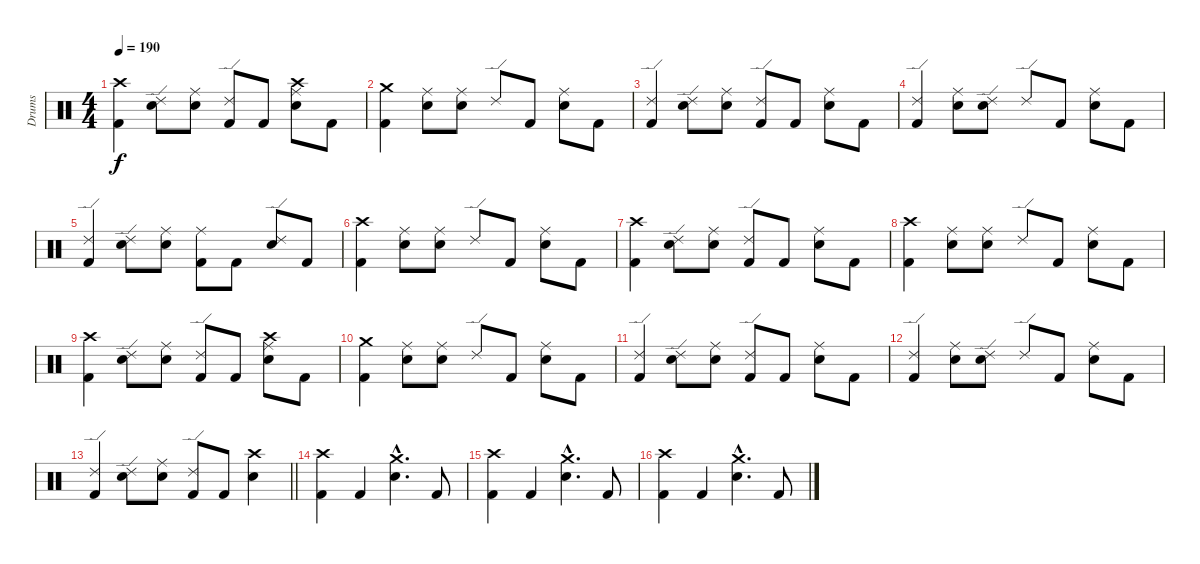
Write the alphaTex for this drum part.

\track ("Drums" "Drums") {instrument percussion}
\staff {score}
\articulation defaults
\ts (4 4)
\tempo 190
\clef neutral
\ks c
("Crash high (hit)" "Kick (hit) 2").4{dy f} ("Ride (edge) 2" "Electric Snare (hit)").8 ("Ride (middle)" "Electric Snare (hit)").8 ("Ride (edge) 2" "Kick (hit) 2").8 "Kick (hit) 2".8 ("Crash high (hit)" "Ride (middle)" "Electric Snare (hit)").8 "Kick (hit) 2".8 |
("Crash medium (hit)" "Kick (hit) 2").4 ("Ride (middle)" "Electric Snare (hit)").8 ("Ride (middle)" "Electric Snare (hit)").8 "Ride (edge) 2".8 "Kick (hit) 2".8 ("Ride (middle)" "Electric Snare (hit)").8 "Kick (hit) 2".8 |
("Ride (edge) 2" "Kick (hit) 2").4 ("Ride (edge) 2" "Electric Snare (hit)").8 ("Ride (middle)" "Electric Snare (hit)").8 ("Ride (edge) 2" "Kick (hit) 2").8 "Kick (hit) 2".8 ("Ride (middle)" "Electric Snare (hit)").8 "Kick (hit) 2".8 |
("Ride (edge) 2" "Kick (hit) 2").4 ("Ride (middle)" "Electric Snare (hit)").8 ("Ride (edge) 2" "Electric Snare (hit)").8 "Ride (edge) 2".8 "Kick (hit) 2".8 ("Ride (middle)" "Electric Snare (hit)").8 "Kick (hit) 2".8 |
("Ride (edge) 2" "Kick (hit) 2").4 ("Ride (edge) 2" "Electric Snare (hit)").8 ("Ride (middle)" "Electric Snare (hit)").8 ("Ride (middle)" "Kick (hit) 2").8 "Kick (hit) 2".8 ("Ride (edge) 2" "Electric Snare (hit)").8 "Kick (hit) 2".8 |
("Crash high (hit)" "Kick (hit) 2").4 ("Ride (middle)" "Electric Snare (hit)").8 ("Ride (middle)" "Electric Snare (hit)").8 "Ride (edge) 2".8 "Kick (hit) 2".8 ("Ride (middle)" "Electric Snare (hit)").8 "Kick (hit) 2".8 |
("Crash high (hit)" "Kick (hit) 2").4 ("Ride (edge) 2" "Electric Snare (hit)").8 ("Ride (middle)" "Electric Snare (hit)").8 ("Ride (edge) 2" "Kick (hit) 2").8 "Kick (hit) 2".8 ("Ride (middle)" "Electric Snare (hit)").8 "Kick (hit) 2".8 |
("Crash high (hit)" "Kick (hit) 2").4 ("Ride (middle)" "Electric Snare (hit)").8 ("Ride (middle)" "Electric Snare (hit)").8 "Ride (edge) 2".8 "Kick (hit) 2".8 ("Ride (middle)" "Electric Snare (hit)").8 "Kick (hit) 2".8 |
("Crash high (hit)" "Kick (hit) 2").4 ("Ride (edge) 2" "Electric Snare (hit)").8 ("Ride (middle)" "Electric Snare (hit)").8 ("Ride (edge) 2" "Kick (hit) 2").8 "Kick (hit) 2".8 ("Crash high (hit)" "Ride (middle)" "Electric Snare (hit)").8 "Kick (hit) 2".8 |
("Crash medium (hit)" "Kick (hit) 2").4 ("Ride (middle)" "Electric Snare (hit)").8 ("Ride (middle)" "Electric Snare (hit)").8 "Ride (edge) 2".8 "Kick (hit) 2".8 ("Ride (middle)" "Electric Snare (hit)").8 "Kick (hit) 2".8 |
("Ride (edge) 2" "Kick (hit) 2").4 ("Ride (edge) 2" "Electric Snare (hit)").8 ("Ride (middle)" "Electric Snare (hit)").8 ("Ride (edge) 2" "Kick (hit) 2").8 "Kick (hit) 2".8 ("Ride (middle)" "Electric Snare (hit)").8 "Kick (hit) 2".8 |
("Ride (edge) 2" "Kick (hit) 2").4 ("Ride (middle)" "Electric Snare (hit)").8 ("Ride (edge) 2" "Electric Snare (hit)").8 "Ride (edge) 2".8 "Kick (hit) 2".8 ("Ride (middle)" "Electric Snare (hit)").8 "Kick (hit) 2".8 |
\barLineRight lightlight
("Ride (edge) 2" "Kick (hit) 2").4 ("Ride (edge) 2" "Electric Snare (hit)").8 ("Ride (middle)" "Electric Snare (hit)").8 ("Ride (edge) 2" "Kick (hit) 2").8 "Kick (hit) 2".8 ("Crash high (hit)" "Electric Snare (hit)").4 |
\section ("" "")
("Crash high (hit)" "Kick (hit) 2").4 "Kick (hit) 2".4 ("Crash medium (hit)"{hac} "Electric Snare (hit)"{hac}).4{d} "Kick (hit) 2".8 |
("Crash high (hit)" "Kick (hit) 2").4 "Kick (hit) 2".4 ("Crash medium (hit)"{hac} "Electric Snare (hit)"{hac}).4{d} "Kick (hit) 2".8 |
("Crash high (hit)" "Kick (hit) 2").4 "Kick (hit) 2".4 ("Crash medium (hit)"{hac} "Electric Snare (hit)"{hac}).4{d} "Kick (hit) 2".8
